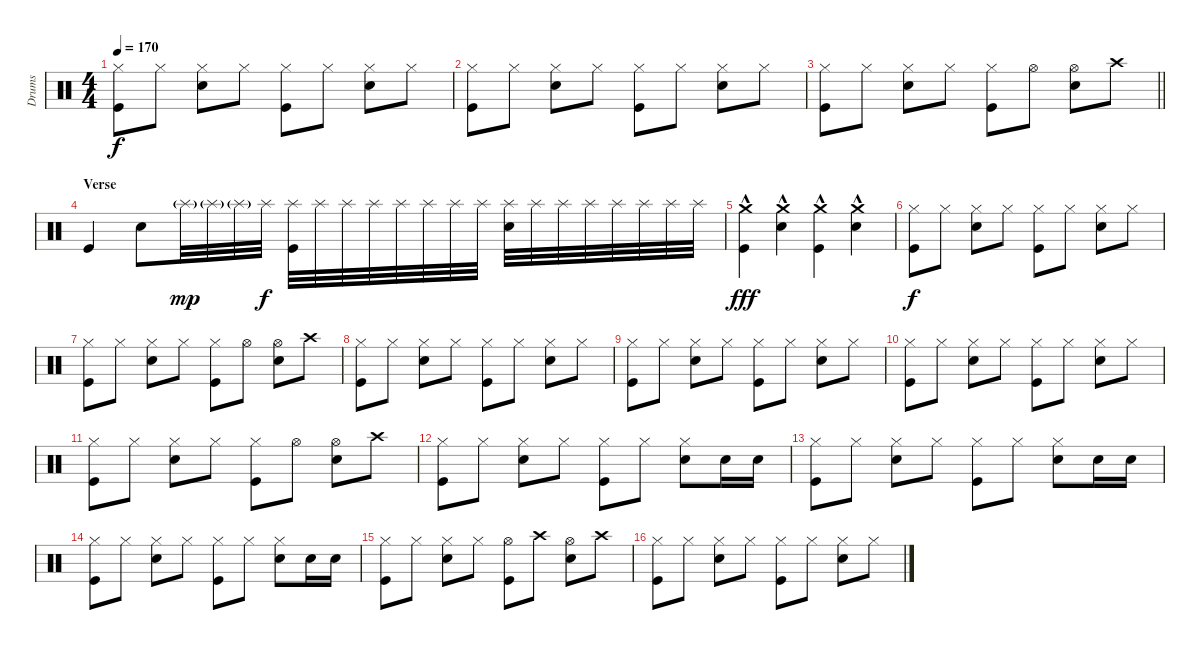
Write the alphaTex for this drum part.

\track ("Drums" "Drums") {instrument percussion}
\staff {score}
\articulation defaults
\ts (4 4)
\tempo 170
\clef neutral
\ks c
("Hi-Hat (closed)" "Kick (hit)").8{dy f} "Hi-Hat (closed)".8 ("Hi-Hat (closed)" "Electric Snare (hit)").8 "Hi-Hat (closed)".8 ("Hi-Hat (closed)" "Kick (hit)").8 "Hi-Hat (closed)".8 ("Hi-Hat (closed)" "Electric Snare (hit)").8 "Hi-Hat (closed)".8 |
("Hi-Hat (closed)" "Kick (hit)").8 "Hi-Hat (closed)".8 ("Hi-Hat (closed)" "Electric Snare (hit)").8 "Hi-Hat (closed)".8 ("Hi-Hat (closed)" "Kick (hit)").8 "Hi-Hat (closed)".8 ("Hi-Hat (closed)" "Electric Snare (hit)").8 "Hi-Hat (closed)".8 |
\barLineRight lightlight
("Hi-Hat (closed)" "Kick (hit)").8 "Hi-Hat (closed)".8 ("Hi-Hat (closed)" "Electric Snare (hit)").8 "Hi-Hat (closed)".8 ("Hi-Hat (closed)" "Kick (hit)").8 "Hi-Hat (open)".8 ("Hi-Hat (open)" "Electric Snare (hit)").8 "Crash high (hit)".8 |
\section ("" "Verse")
"Kick (hit)".4 "Electric Snare (hit)".8 "Splash (hit)"{g}.32{dy mp} "Splash (hit)"{g}.32 "Splash (hit)"{g}.32 "Splash (hit)".32{dy f} ("Splash (hit)" "Kick (hit)").32 "Splash (hit)".32 "Splash (hit)".32 "Splash (hit)".32 "Splash (hit)".32 "Splash (hit)".32 "Splash (hit)".32 "Splash (hit)".32 ("Splash (hit)" "Electric Snare (hit)").32 "Splash (hit)".32 "Splash (hit)".32 "Splash (hit)".32 "Splash (hit)".32 "Splash (hit)".32 "Splash (hit)".32 "Splash (hit)".32 |
("Crash medium (hit)"{hac} "Kick (hit)").4{dy fff} ("Crash medium (hit)"{hac} "Electric Snare (hit)").4 ("Crash medium (hit)"{hac} "Kick (hit)").4 ("Crash medium (hit)"{hac} "Electric Snare (hit)").4 |
("Hi-Hat (closed)" "Kick (hit)").8{dy f} "Hi-Hat (closed)".8 ("Hi-Hat (closed)" "Electric Snare (hit)").8 "Hi-Hat (closed)".8 ("Hi-Hat (closed)" "Kick (hit)").8 "Hi-Hat (closed)".8 ("Hi-Hat (closed)" "Electric Snare (hit)").8 "Hi-Hat (closed)".8 |
("Hi-Hat (closed)" "Kick (hit)").8 "Hi-Hat (closed)".8 ("Hi-Hat (closed)" "Electric Snare (hit)").8 "Hi-Hat (closed)".8 ("Hi-Hat (closed)" "Kick (hit)").8 "Hi-Hat (open)".8 ("Hi-Hat (open)" "Electric Snare (hit)").8 "Crash high (hit)".8 |
("Hi-Hat (closed)" "Kick (hit)").8 "Hi-Hat (closed)".8 ("Hi-Hat (closed)" "Electric Snare (hit)").8 "Hi-Hat (closed)".8 ("Hi-Hat (closed)" "Kick (hit)").8 "Hi-Hat (closed)".8 ("Hi-Hat (closed)" "Electric Snare (hit)").8 "Hi-Hat (closed)".8 |
("Hi-Hat (closed)" "Kick (hit)").8 "Hi-Hat (closed)".8 ("Hi-Hat (closed)" "Electric Snare (hit)").8 "Hi-Hat (closed)".8 ("Hi-Hat (closed)" "Kick (hit)").8 "Hi-Hat (closed)".8 ("Hi-Hat (closed)" "Electric Snare (hit)").8 "Hi-Hat (closed)".8 |
("Hi-Hat (closed)" "Kick (hit)").8 "Hi-Hat (closed)".8 ("Hi-Hat (closed)" "Electric Snare (hit)").8 "Hi-Hat (closed)".8 ("Hi-Hat (closed)" "Kick (hit)").8 "Hi-Hat (closed)".8 ("Hi-Hat (closed)" "Electric Snare (hit)").8 "Hi-Hat (closed)".8 |
("Hi-Hat (closed)" "Kick (hit)").8 "Hi-Hat (closed)".8 ("Hi-Hat (closed)" "Electric Snare (hit)").8 "Hi-Hat (closed)".8 ("Hi-Hat (closed)" "Kick (hit)").8 "Hi-Hat (open)".8 ("Hi-Hat (open)" "Electric Snare (hit)").8 "Crash high (hit)".8 |
("Hi-Hat (closed)" "Kick (hit)").8 "Hi-Hat (closed)".8 ("Hi-Hat (closed)" "Electric Snare (hit)").8 "Hi-Hat (closed)".8 ("Hi-Hat (closed)" "Kick (hit)").8 "Hi-Hat (closed)".8 ("Hi-Hat (closed)" "Electric Snare (hit)").8 "Electric Snare (hit)".16 "Electric Snare (hit)".16 |
("Hi-Hat (closed)" "Kick (hit)").8 "Hi-Hat (closed)".8 ("Hi-Hat (closed)" "Electric Snare (hit)").8 "Hi-Hat (closed)".8 ("Hi-Hat (closed)" "Kick (hit)").8 "Hi-Hat (closed)".8 ("Hi-Hat (closed)" "Electric Snare (hit)").8 "Electric Snare (hit)".16 "Electric Snare (hit)".16 |
("Hi-Hat (closed)" "Kick (hit)").8 "Hi-Hat (closed)".8 ("Hi-Hat (closed)" "Electric Snare (hit)").8 "Hi-Hat (closed)".8 ("Hi-Hat (closed)" "Kick (hit)").8 "Hi-Hat (closed)".8 ("Hi-Hat (closed)" "Electric Snare (hit)").8 "Electric Snare (hit)".16 "Electric Snare (hit)".16 |
("Hi-Hat (closed)" "Kick (hit)").8 "Hi-Hat (closed)".8 ("Hi-Hat (closed)" "Electric Snare (hit)").8 "Hi-Hat (closed)".8 ("Hi-Hat (open)" "Kick (hit)").8 "Crash high (hit)".8 ("Hi-Hat (open)" "Electric Snare (hit)").8 "Crash high (hit)".8 |
("Hi-Hat (closed)" "Kick (hit)").8 "Hi-Hat (closed)".8 ("Hi-Hat (closed)" "Electric Snare (hit)").8 "Hi-Hat (closed)".8 ("Hi-Hat (closed)" "Kick (hit)").8 "Hi-Hat (closed)".8 ("Hi-Hat (closed)" "Electric Snare (hit)").8 "Hi-Hat (closed)".8
